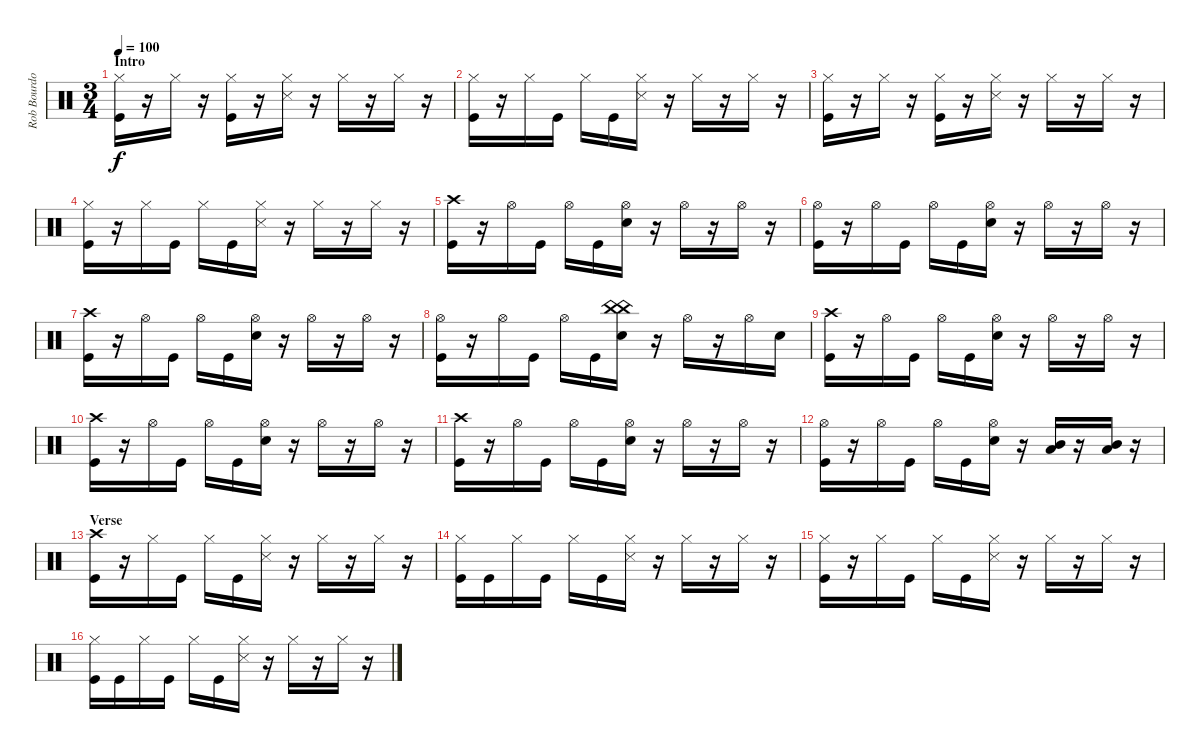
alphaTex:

\track ("Rob Bourdon" "Rob Bourdo") {instrument percussion}
\staff {score}
\articulation defaults
\ts (3 4)
\section ("" "Intro")
\tempo 100
\clef neutral
\ks c
("Hi-Hat (closed)" "Kick (hit)").16{dy f} r.16 "Hi-Hat (closed)".16 r.16 ("Hi-Hat (closed)" "Kick (hit)").16 r.16 ("Hi-Hat (closed)" "Snare (side stick) 3").16 r.16 "Hi-Hat (closed)".16 r.16 "Hi-Hat (closed)".16 r.16 |
("Hi-Hat (closed)" "Kick (hit)").16 r.16 "Hi-Hat (closed)".16 "Kick (hit)".16 "Hi-Hat (closed)".16 "Kick (hit)".16 ("Hi-Hat (closed)" "Snare (side stick) 3").16 r.16 "Hi-Hat (closed)".16 r.16 "Hi-Hat (closed)".16 r.16 |
("Hi-Hat (closed)" "Kick (hit)").16 r.16 "Hi-Hat (closed)".16 r.16 ("Hi-Hat (closed)" "Kick (hit)").16 r.16 ("Hi-Hat (closed)" "Snare (side stick) 3").16 r.16 "Hi-Hat (closed)".16 r.16 "Hi-Hat (closed)".16 r.16 |
("Hi-Hat (closed)" "Kick (hit)").16 r.16 "Hi-Hat (closed)".16 "Kick (hit)".16 "Hi-Hat (closed)".16 "Kick (hit)".16 ("Hi-Hat (closed)" "Snare (side stick) 3").16 r.16 "Hi-Hat (closed)".16 r.16 "Hi-Hat (closed)".16 r.16 |
("Crash high (hit)" "Kick (hit)").16 r.16 "Hi-Hat (open)".16 "Kick (hit)".16 "Hi-Hat (open)".16 "Kick (hit)".16 ("Hi-Hat (open)" "Snare (hit) 2").16 r.16 "Hi-Hat (open)".16 r.16 "Hi-Hat (open)".16 r.16 |
("Hi-Hat (open)" "Kick (hit)").16 r.16 "Hi-Hat (open)".16 "Kick (hit)".16 "Hi-Hat (open)".16 "Kick (hit)".16 ("Hi-Hat (open)" "Snare (hit) 2").16 r.16 "Hi-Hat (open)".16 r.16 "Hi-Hat (open)".16 r.16 |
("Crash high (hit)" "Kick (hit)").16 r.16 "Hi-Hat (open)".16 "Kick (hit)".16 "Hi-Hat (open)".16 "Kick (hit)".16 ("Hi-Hat (open)" "Snare (hit) 2").16 r.16 "Hi-Hat (open)".16 r.16 "Hi-Hat (open)".16 r.16 |
("Hi-Hat (open)" "Kick (hit)").16 r.16 "Hi-Hat (open)".16 "Kick (hit)".16 "Hi-Hat (open)".16 "Kick (hit)".16 ("China (hit)" "China (hit)" "Snare (hit) 2").16 r.16 "Hi-Hat (open)".16 r.16 "Hi-Hat (open)".16 "Snare (hit) 2".16 |
("Crash high (hit)" "Kick (hit)").16 r.16 "Hi-Hat (open)".16 "Kick (hit)".16 "Hi-Hat (open)".16 "Kick (hit)".16 ("Hi-Hat (open)" "Snare (hit) 2").16 r.16 "Hi-Hat (open)".16 r.16 "Hi-Hat (open)".16 r.16 |
("Crash high (hit)" "Kick (hit)").16 r.16 "Hi-Hat (open)".16 "Kick (hit)".16 "Hi-Hat (open)".16 "Kick (hit)".16 ("Hi-Hat (open)" "Snare (hit) 2").16 r.16 "Hi-Hat (open)".16 r.16 "Hi-Hat (open)".16 r.16 |
("Crash high (hit)" "Kick (hit)").16 r.16 "Hi-Hat (open)".16 "Kick (hit)".16 "Hi-Hat (open)".16 "Kick (hit)".16 ("Hi-Hat (open)" "Snare (hit) 2").16 r.16 "Hi-Hat (open)".16 r.16 "Hi-Hat (open)".16 r.16 |
("Hi-Hat (open)" "Kick (hit)").16 r.16 "Hi-Hat (open)".16 "Kick (hit)".16 "Hi-Hat (open)".16 "Kick (hit)".16 ("Hi-Hat (open)" "Snare (hit) 2").16 r.16 ("Mid Tom (hit)" "Low Tom (hit)").16 r.16 ("Mid Tom (hit)" "Low Tom (hit)").16 r.16 |
\section ("" "Verse")
("Crash high (hit)" "Kick (hit)").16 r.16 "Hi-Hat (closed)".16 "Kick (hit)".16 "Hi-Hat (closed)".16 "Kick (hit)".16 ("Hi-Hat (closed)" "Snare (side stick) 3").16 r.16 "Hi-Hat (closed)".16 r.16 "Hi-Hat (closed)".16 r.16 |
("Hi-Hat (closed)" "Kick (hit)").16 "Kick (hit)".16 "Hi-Hat (closed)".16 "Kick (hit)".16 "Hi-Hat (closed)".16 "Kick (hit)".16 ("Hi-Hat (closed)" "Snare (side stick) 3").16 r.16 "Hi-Hat (closed)".16 r.16 "Hi-Hat (closed)".16 r.16 |
("Hi-Hat (closed)" "Kick (hit)").16 r.16 "Hi-Hat (closed)".16 "Kick (hit)".16 "Hi-Hat (closed)".16 "Kick (hit)".16 ("Hi-Hat (closed)" "Snare (side stick) 3").16 r.16 "Hi-Hat (closed)".16 r.16 "Hi-Hat (closed)".16 r.16 |
("Hi-Hat (closed)" "Kick (hit)").16 "Kick (hit)".16 "Hi-Hat (closed)".16 "Kick (hit)".16 "Hi-Hat (closed)".16 "Kick (hit)".16 ("Hi-Hat (closed)" "Snare (side stick) 3").16 r.16 "Hi-Hat (closed)".16 r.16 "Hi-Hat (closed)".16 r.16
